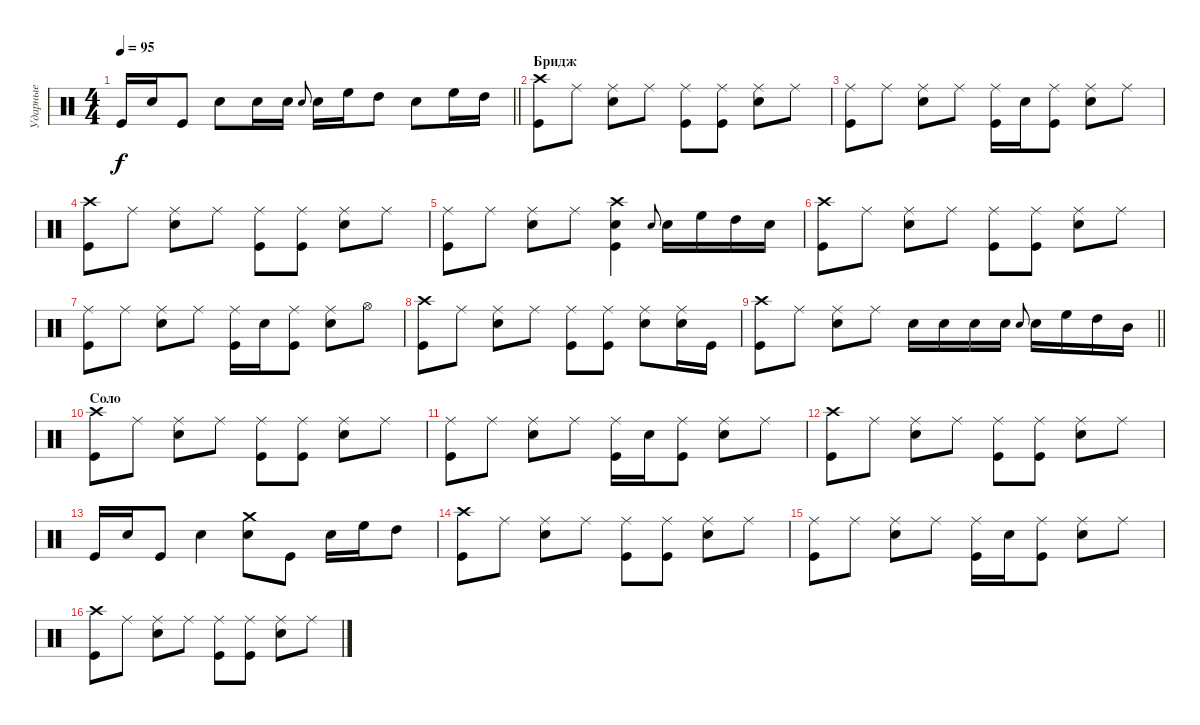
\track ("Ударные" "Ударные") {instrument percussion}
\staff {score}
\articulation defaults
\ts (4 4)
\tempo 95
\clef neutral
\barLineRight lightlight
\ks c "Kick (hit)".16{dy f} "Snare (hit) 2".16 "Kick (hit)".8 "Snare (hit) 2".8 "Snare (hit) 2".16 "Snare (hit) 2".16 "Snare (hit) 2".8{gr onbeat} "Snare (hit) 2".16 "High Floor Tom (hit)".16 "High Tom (hit)".8 "Snare (hit) 2".8 "High Floor Tom (hit)".16 "High Tom (hit)".16
|
\section ("" "Бридж")
("Crash high (hit)" "Kick (hit)").8 "Ride (middle)".8 ("Ride (middle)" "Snare (hit) 2").8 "Ride (middle)".8 ("Ride (middle)" "Kick (hit)").8 ("Ride (middle)" "Kick (hit)").8 ("Ride (middle)" "Snare (hit) 2").8 "Ride (middle)".8 |
("Ride (middle)" "Kick (hit)").8 "Ride (middle)".8 ("Ride (middle)" "Snare (hit) 2").8 "Ride (middle)".8 ("Ride (middle)" "Kick (hit)").16 "Snare (hit) 2".16 ("Ride (middle)" "Kick (hit)").8 ("Ride (middle)" "Snare (hit) 2").8 "Ride (middle)".8 |
("Crash high (hit)" "Kick (hit)").8 "Ride (middle)".8 ("Ride (middle)" "Snare (hit) 2").8 "Ride (middle)".8 ("Ride (middle)" "Kick (hit)").8 ("Ride (middle)" "Kick (hit)").8 ("Ride (middle)" "Snare (hit) 2").8 "Ride (middle)".8 |
("Ride (middle)" "Kick (hit)").8 "Ride (middle)".8 ("Ride (middle)" "Snare (hit) 2").8 "Ride (middle)".8 ("Crash high (hit)" "Snare (hit) 2" "Kick (hit)").4 "Snare (hit) 2".8{gr onbeat} "Snare (hit) 2".16 "High Floor Tom (hit)".16 "High Tom (hit)".16 "Snare (hit) 2".16 |
("Crash high (hit)" "Kick (hit)").8 "Ride (middle)".8 ("Ride (middle)" "Snare (hit) 2").8 "Ride (middle)".8 ("Ride (middle)" "Kick (hit)").8 ("Ride (middle)" "Kick (hit)").8 ("Ride (middle)" "Snare (hit) 2").8 "Ride (middle)".8 |
("Ride (middle)" "Kick (hit)").8 "Ride (middle)".8 ("Ride (middle)" "Snare (hit) 2").8 "Ride (middle)".8 ("Ride (middle)" "Kick (hit)").16 "Snare (hit) 2".16 ("Ride (middle)" "Kick (hit)").8 ("Ride (middle)" "Snare (hit) 2").8 "Hi-Hat (open)".8 |
("Crash high (hit)" "Kick (hit)").8 "Ride (middle)".8 ("Ride (middle)" "Snare (hit) 2").8 "Ride (middle)".8 ("Ride (middle)" "Kick (hit)").8 ("Ride (middle)" "Kick (hit)").8 ("Ride (middle)" "Snare (hit) 2").8 ("Ride (middle)" "Snare (hit) 2").16 "Kick (hit)".16 |
\barLineRight lightlight
("Crash high (hit)" "Kick (hit)").8 "Ride (middle)".8 ("Ride (middle)" "Snare (hit) 2").8 "Ride (middle)".8 "Snare (hit) 2".16 "Snare (hit) 2".16 "Snare (hit) 2".16 "Snare (hit) 2".16 "Snare (hit) 2".8{gr onbeat} "Snare (hit) 2".16 "High Floor Tom (hit)".16 "High Tom (hit)".16 "Mid Tom (hit)".16 |
\section ("" "Соло")
("Crash high (hit)" "Kick (hit)").8 "Ride (middle)".8 ("Ride (middle)" "Snare (hit) 2").8 "Ride (middle)".8 ("Ride (middle)" "Kick (hit)").8 ("Ride (middle)" "Kick (hit)").8 ("Ride (middle)" "Snare (hit) 2").8 "Ride (middle)".8 |
("Ride (middle)" "Kick (hit)").8 "Ride (middle)".8 ("Ride (middle)" "Snare (hit) 2").8 "Ride (middle)".8 ("Ride (middle)" "Kick (hit)").16 "Snare (hit) 2".16 ("Ride (middle)" "Kick (hit)").8 ("Ride (middle)" "Snare (hit) 2").8 "Ride (middle)".8 |
("Crash high (hit)" "Kick (hit)").8 "Ride (middle)".8 ("Ride (middle)" "Snare (hit) 2").8 "Ride (middle)".8 ("Ride (middle)" "Kick (hit)").8 ("Ride (middle)" "Kick (hit)").8 ("Ride (middle)" "Snare (hit) 2").8 "Ride (middle)".8 |
"Kick (hit)".16 "Snare (hit) 2".16 "Kick (hit)".8 "Snare (hit) 2".4 ("Crash medium (hit)" "Snare (hit) 2").8 "Kick (hit)".8 "Snare (hit) 2".16 "High Floor Tom (hit)".16 "High Tom (hit)".8 |
("Crash high (hit)" "Kick (hit)").8 "Ride (middle)".8 ("Ride (middle)" "Snare (hit) 2").8 "Ride (middle)".8 ("Ride (middle)" "Kick (hit)").8 ("Ride (middle)" "Kick (hit)").8 ("Ride (middle)" "Snare (hit) 2").8 "Ride (middle)".8 |
("Ride (middle)" "Kick (hit)").8 "Ride (middle)".8 ("Ride (middle)" "Snare (hit) 2").8 "Ride (middle)".8 ("Ride (middle)" "Kick (hit)").16 "Snare (hit) 2".16 ("Ride (middle)" "Kick (hit)").8 ("Ride (middle)" "Snare (hit) 2").8 "Ride (middle)".8 |
("Crash high (hit)" "Kick (hit)").8 "Ride (middle)".8 ("Ride (middle)" "Snare (hit) 2").8 "Ride (middle)".8 ("Ride (middle)" "Kick (hit)").8 ("Ride (middle)" "Kick (hit)").8 ("Ride (middle)" "Snare (hit) 2").8 "Ride (middle)".8
